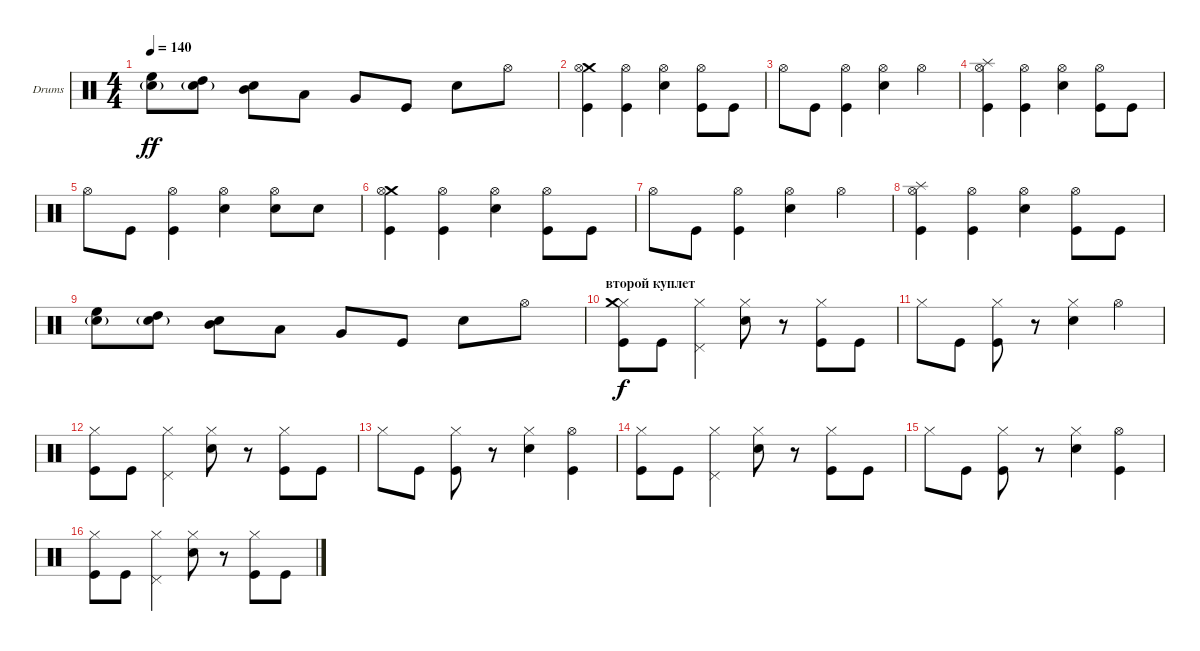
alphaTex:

\defaultSystemsLayout 4
\bracketExtendMode groupsimilarinstruments
\firstSystemTrackNameOrientation horizontal
\otherSystemsTrackNameOrientation horizontal
\track ("Drumkit" "Drums") {instrument percussion}
\staff {score}
\articulation defaults
\ts (4 4)
\tempo 140
\clef neutral
\scale
0.333333
\ks c
("High Floor Tom (hit)" "Snare (hit) 2"{g}).8{dy ff} ("High Tom (hit)" "Snare (hit) 2"{g}).8 ("Mid Tom (hit)" "Snare (hit) 2").8 "Low Tom (hit)".8 "Very Low Tom (hit)".8 "Kick (hit)".8 "Snare (hit) 2".8 "Hi-Hat (open)".8 |
\scale
0.333333 ("Kick (hit)" "Crash medium (hit)" "Hi-Hat (open)").4 ("Hi-Hat (open)" "Kick (hit)").4 ("Hi-Hat (open)" "Snare (hit) 2").4 ("Kick (hit)" "Hi-Hat (open)").8 "Kick (hit)".8 |
\scale
0.333333 "Hi-Hat (open)".8 "Kick (hit)".8 ("Kick (hit)" "Hi-Hat (open)").4 ("Snare (hit) 2" "Hi-Hat (open)").4 "Hi-Hat (open)".4 |
\scale
0.333333 ("Kick (hit)" "Hi-Hat (open)" "Splash (hit)").4 ("Hi-Hat (open)" "Kick (hit)").4 ("Hi-Hat (open)" "Snare (hit) 2").4 ("Kick (hit)" "Hi-Hat (open)").8 "Kick (hit)".8 |
\scale
0.333333 "Hi-Hat (open)".8 "Kick (hit)".8 ("Kick (hit)" "Hi-Hat (open)").4 ("Snare (hit) 2" "Hi-Hat (open)").4 ("Hi-Hat (open)" "Snare (hit) 2").8 "Snare (hit) 2".8 |
\scale
0.333333 ("Kick (hit)" "Crash medium (hit)" "Hi-Hat (open)").4 ("Hi-Hat (open)" "Kick (hit)").4 ("Hi-Hat (open)" "Snare (hit) 2").4 ("Kick (hit)" "Hi-Hat (open)").8 "Kick (hit)".8 |
\scale
0.333333 "Hi-Hat (open)".8 "Kick (hit)".8 ("Kick (hit)" "Hi-Hat (open)").4 ("Snare (hit) 2" "Hi-Hat (open)").4 "Hi-Hat (open)".4 |
\scale
0.333333 ("Kick (hit)" "Hi-Hat (open)" "Splash (hit)").4 ("Hi-Hat (open)" "Kick (hit)").4 ("Hi-Hat (open)" "Snare (hit) 2").4 ("Kick (hit)" "Hi-Hat (open)").8 "Kick (hit)".8 |
\scale
0.333333 ("High Floor Tom (hit)" "Snare (hit) 2"{g}).8 ("High Tom (hit)" "Snare (hit) 2"{g}).8 ("Mid Tom (hit)" "Snare (hit) 2").8 "Low Tom (hit)".8 "Very Low Tom (hit)".8 "Kick (hit)".8 "Snare (hit) 2".8 "Hi-Hat (open)".8 |
\section ("" "второй куплет")
\scale
0.333333 ("Kick (hit)" "Hi-Hat (closed)" "Crash medium (hit)").8{dy f} "Kick (hit)".8 ("Pedal Hi-Hat (hit)" "Hi-Hat (closed)").4 ("Snare (hit) 2" "Hi-Hat (closed)").8 r.8 ("Kick (hit)" "Hi-Hat (closed)").8 "Kick (hit)".8 |
\scale
0.333333 "Hi-Hat (closed)".8 "Kick (hit)".8 ("Kick (hit)" "Hi-Hat (closed)").8 r.8 ("Snare (hit) 2" "Hi-Hat (closed)").4 "Hi-Hat (open)".4 |
\scale
0.333333 ("Kick (hit)" "Hi-Hat (closed)").8 "Kick (hit)".8 ("Pedal Hi-Hat (hit)" "Hi-Hat (closed)").4 ("Snare (hit) 2" "Hi-Hat (closed)").8 r.8 ("Kick (hit)" "Hi-Hat (closed)").8 "Kick (hit)".8 |
\scale
0.333333 "Hi-Hat (closed)".8 "Kick (hit)".8 ("Kick (hit)" "Hi-Hat (closed)").8 r.8 ("Snare (hit) 2" "Hi-Hat (closed)").4 ("Hi-Hat (open)" "Kick (hit)").4 |
\scale
0.333333 ("Kick (hit)" "Hi-Hat (closed)").8 "Kick (hit)".8 ("Pedal Hi-Hat (hit)" "Hi-Hat (closed)").4 ("Snare (hit) 2" "Hi-Hat (closed)").8 r.8 ("Kick (hit)" "Hi-Hat (closed)").8 "Kick (hit)".8 |
\scale
0.333333 "Hi-Hat (closed)".8 "Kick (hit)".8 ("Kick (hit)" "Hi-Hat (closed)").8 r.8 ("Snare (hit) 2" "Hi-Hat (closed)").4 ("Hi-Hat (open)" "Kick (hit)").4 |
\scale
0.333333 ("Kick (hit)" "Hi-Hat (closed)").8 "Kick (hit)".8 ("Pedal Hi-Hat (hit)" "Hi-Hat (closed)").4 ("Snare (hit) 2" "Hi-Hat (closed)").8 r.8 ("Kick (hit)" "Hi-Hat (closed)").8 "Kick (hit)".8
